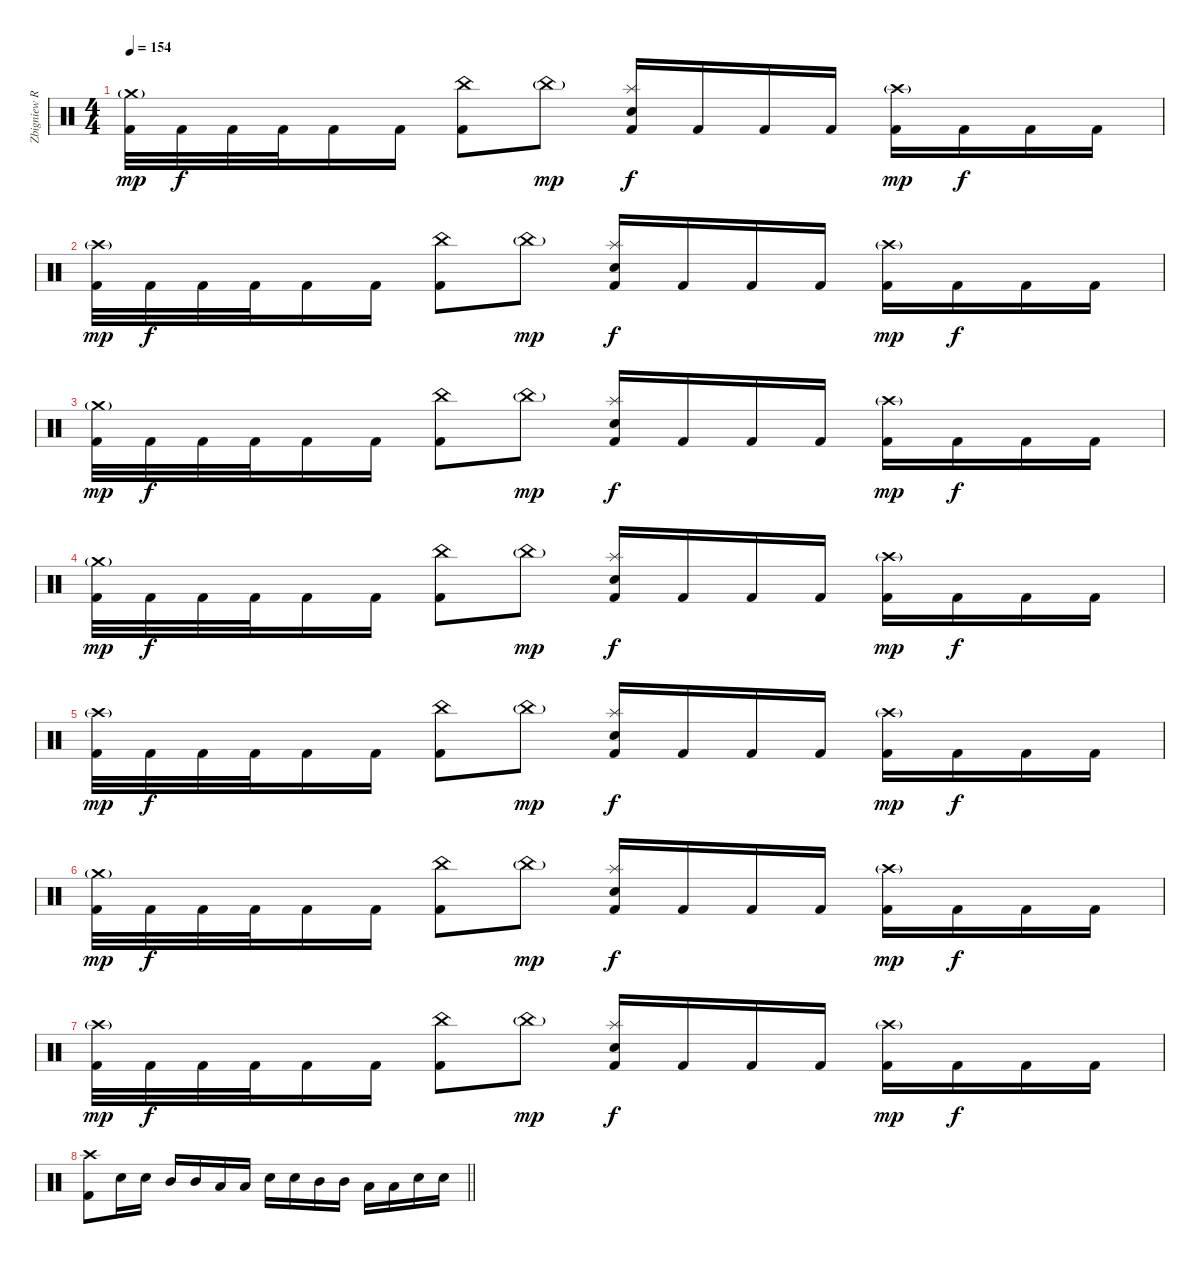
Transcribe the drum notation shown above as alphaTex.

\track ("Zbigniew Robert \"Inferno\" Prominski" "Zbigniew R") {instrument percussion}
\staff {score}
\articulation defaults
\ts (4 4)
\tempo 154
\clef neutral
\ks c
("Crash medium (hit)"{g} "Kick (hit) 2").32{dy mp} "Kick (hit) 2".32{dy f} "Kick (hit) 2".32 "Kick (hit) 2".32 "Kick (hit) 2".16 "Kick (hit) 2".16 ("China (hit)" "Kick (hit) 2").8 "China (hit)"{g}.8{dy mp} ("Splash (hit)" "Snare (hit) 2" "Kick (hit) 2").16{dy f} "Kick (hit) 2".16 "Kick (hit) 2".16 "Kick (hit) 2".16 ("Crash high (hit)"{g} "Kick (hit) 2").16{dy mp} "Kick (hit) 2".16{dy f} "Kick (hit) 2".16 "Kick (hit) 2".16 |
("Crash high (hit)"{g} "Kick (hit) 2").32{dy mp} "Kick (hit) 2".32{dy f} "Kick (hit) 2".32 "Kick (hit) 2".32 "Kick (hit) 2".16 "Kick (hit) 2".16 ("China (hit)" "Kick (hit) 2").8 "China (hit)"{g}.8{dy mp} ("Splash (hit)" "Snare (hit) 2" "Kick (hit) 2").16{dy f} "Kick (hit) 2".16 "Kick (hit) 2".16 "Kick (hit) 2".16 ("Crash high (hit)"{g} "Kick (hit) 2").16{dy mp} "Kick (hit) 2".16{dy f} "Kick (hit) 2".16 "Kick (hit) 2".16 |
("Crash medium (hit)"{g} "Kick (hit) 2").32{dy mp} "Kick (hit) 2".32{dy f} "Kick (hit) 2".32 "Kick (hit) 2".32 "Kick (hit) 2".16 "Kick (hit) 2".16 ("China (hit)" "Kick (hit) 2").8 "China (hit)"{g}.8{dy mp} ("Splash (hit)" "Snare (hit) 2" "Kick (hit) 2").16{dy f} "Kick (hit) 2".16 "Kick (hit) 2".16 "Kick (hit) 2".16 ("Crash high (hit)"{g} "Kick (hit) 2").16{dy mp} "Kick (hit) 2".16{dy f} "Kick (hit) 2".16 "Kick (hit) 2".16 |
("Crash medium (hit)"{g} "Kick (hit) 2").32{dy mp} "Kick (hit) 2".32{dy f} "Kick (hit) 2".32 "Kick (hit) 2".32 "Kick (hit) 2".16 "Kick (hit) 2".16 ("China (hit)" "Kick (hit) 2").8 "China (hit)"{g}.8{dy mp} ("Splash (hit)" "Snare (hit) 2" "Kick (hit) 2").16{dy f} "Kick (hit) 2".16 "Kick (hit) 2".16 "Kick (hit) 2".16 ("Crash high (hit)"{g} "Kick (hit) 2").16{dy mp} "Kick (hit) 2".16{dy f} "Kick (hit) 2".16 "Kick (hit) 2".16 |
("Crash high (hit)"{g} "Kick (hit) 2").32{dy mp} "Kick (hit) 2".32{dy f} "Kick (hit) 2".32 "Kick (hit) 2".32 "Kick (hit) 2".16 "Kick (hit) 2".16 ("China (hit)" "Kick (hit) 2").8 "China (hit)"{g}.8{dy mp} ("Splash (hit)" "Snare (hit) 2" "Kick (hit) 2").16{dy f} "Kick (hit) 2".16 "Kick (hit) 2".16 "Kick (hit) 2".16 ("Crash high (hit)"{g} "Kick (hit) 2").16{dy mp} "Kick (hit) 2".16{dy f} "Kick (hit) 2".16 "Kick (hit) 2".16 |
("Crash medium (hit)"{g} "Kick (hit) 2").32{dy mp} "Kick (hit) 2".32{dy f} "Kick (hit) 2".32 "Kick (hit) 2".32 "Kick (hit) 2".16 "Kick (hit) 2".16 ("China (hit)" "Kick (hit) 2").8 "China (hit)"{g}.8{dy mp} ("Splash (hit)" "Snare (hit) 2" "Kick (hit) 2").16{dy f} "Kick (hit) 2".16 "Kick (hit) 2".16 "Kick (hit) 2".16 ("Crash high (hit)"{g} "Kick (hit) 2").16{dy mp} "Kick (hit) 2".16{dy f} "Kick (hit) 2".16 "Kick (hit) 2".16 |
("Crash high (hit)"{g} "Kick (hit) 2").32{dy mp} "Kick (hit) 2".32{dy f} "Kick (hit) 2".32 "Kick (hit) 2".32 "Kick (hit) 2".16 "Kick (hit) 2".16 ("China (hit)" "Kick (hit) 2").8 "China (hit)"{g}.8{dy mp} ("Splash (hit)" "Snare (hit) 2" "Kick (hit) 2").16{dy f} "Kick (hit) 2".16 "Kick (hit) 2".16 "Kick (hit) 2".16 ("Crash high (hit)"{g} "Kick (hit) 2").16{dy mp} "Kick (hit) 2".16{dy f} "Kick (hit) 2".16 "Kick (hit) 2".16 |
\barLineRight lightlight
("Crash high (hit)" "Kick (hit) 2").8 "Snare (hit) 2".16 "Snare (hit) 2".16 "Mid Tom (hit)".16 "Mid Tom (hit)".16 "Low Tom (hit)".16 "Low Tom (hit)".16 "Snare (hit) 2".16 "Snare (hit) 2".16 "Mid Tom (hit)".16 "Mid Tom (hit)".16 "Low Tom (hit)".16 "Low Tom (hit)".16 "Snare (hit) 2".16 "Snare (hit) 2".16
